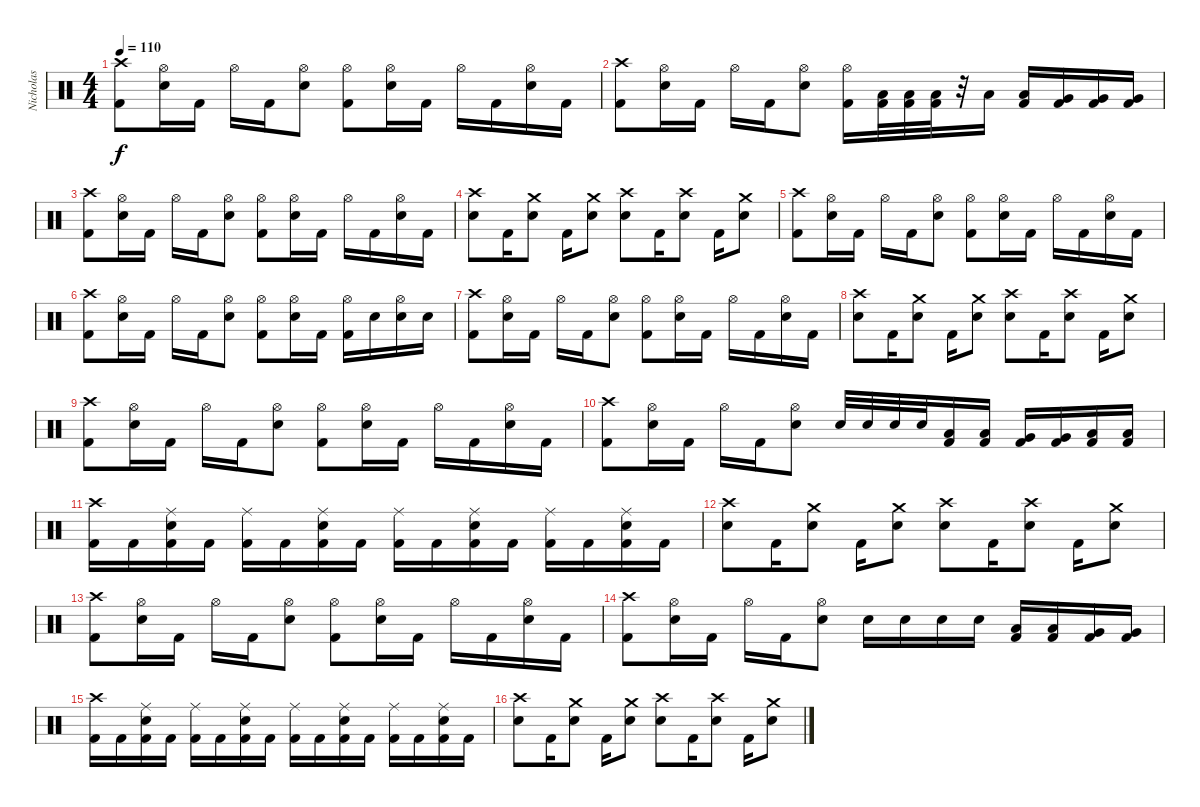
\track ("Nicholas" "Nicholas") {instrument percussion}
\staff {score}
\articulation defaults
\ts (4 4)
\tempo 110
\clef neutral
\ks c
("Crash high (hit)" "Kick (hit) 2").8{dy f} ("Hi-Hat (open)" "Snare (hit) 2").16 "Kick (hit) 2".16 "Hi-Hat (open)".16 "Kick (hit) 2".16 ("Hi-Hat (open)" "Snare (hit) 2").8 ("Hi-Hat (open)" "Kick (hit) 2").8 ("Hi-Hat (open)" "Snare (hit) 2").16 "Kick (hit) 2".16 "Hi-Hat (open)".16 "Kick (hit) 2".16 ("Hi-Hat (open)" "Snare (hit) 2").16 "Kick (hit) 2".16 |
("Crash high (hit)" "Kick (hit) 2").8 ("Hi-Hat (open)" "Snare (hit) 2").16 "Kick (hit) 2".16 "Hi-Hat (open)".16 "Kick (hit) 2".16 ("Hi-Hat (open)" "Snare (hit) 2").8 ("Hi-Hat (open)" "Kick (hit) 2").16 ("Kick (hit) 2" "Low Tom (hit)").32 ("Kick (hit) 2" "Low Tom (hit)").32 ("Kick (hit) 2" "Low Tom (hit)").32 r.32 "Low Tom (hit)".16 ("Kick (hit) 2" "Low Tom (hit)").16 ("Kick (hit) 2" "Very Low Tom (hit)").16 ("Kick (hit) 2" "Very Low Tom (hit)").16 ("Kick (hit) 2" "Very Low Tom (hit)").16 |
("Crash high (hit)" "Kick (hit) 2").8 ("Hi-Hat (open)" "Snare (hit) 2").16 "Kick (hit) 2".16 "Hi-Hat (open)".16 "Kick (hit) 2".16 ("Hi-Hat (open)" "Snare (hit) 2").8 ("Hi-Hat (open)" "Kick (hit) 2").8 ("Hi-Hat (open)" "Snare (hit) 2").16 "Kick (hit) 2".16 "Hi-Hat (open)".16 "Kick (hit) 2".16 ("Hi-Hat (open)" "Snare (hit) 2").16 "Kick (hit) 2".16 |
("Crash high (hit)" "Snare (hit) 2").8 "Kick (hit) 2".16 ("Crash medium (hit)" "Snare (hit) 2").8 "Kick (hit) 2".16 ("Crash medium (hit)" "Snare (hit) 2").8 ("Crash high (hit)" "Snare (hit) 2").8 "Kick (hit) 2".16 ("Crash high (hit)" "Snare (hit) 2").8 "Kick (hit) 2".16 ("Crash medium (hit)" "Snare (hit) 2").8 |
("Crash high (hit)" "Kick (hit) 2").8 ("Hi-Hat (open)" "Snare (hit) 2").16 "Kick (hit) 2".16 "Hi-Hat (open)".16 "Kick (hit) 2".16 ("Hi-Hat (open)" "Snare (hit) 2").8 ("Hi-Hat (open)" "Kick (hit) 2").8 ("Hi-Hat (open)" "Snare (hit) 2").16 "Kick (hit) 2".16 "Hi-Hat (open)".16 "Kick (hit) 2".16 ("Hi-Hat (open)" "Snare (hit) 2").16 "Kick (hit) 2".16 |
("Crash high (hit)" "Kick (hit) 2").8 ("Hi-Hat (open)" "Snare (hit) 2").16 "Kick (hit) 2".16 "Hi-Hat (open)".16 "Kick (hit) 2".16 ("Hi-Hat (open)" "Snare (hit) 2").8 ("Hi-Hat (open)" "Kick (hit) 2").8 ("Hi-Hat (open)" "Snare (hit) 2").16 "Kick (hit) 2".16 ("Hi-Hat (open)" "Kick (hit) 2").16 "Snare (hit) 2".16 ("Hi-Hat (open)" "Snare (hit) 2").16 "Snare (hit) 2".16 |
("Crash high (hit)" "Kick (hit) 2").8 ("Hi-Hat (open)" "Snare (hit) 2").16 "Kick (hit) 2".16 "Hi-Hat (open)".16 "Kick (hit) 2".16 ("Hi-Hat (open)" "Snare (hit) 2").8 ("Hi-Hat (open)" "Kick (hit) 2").8 ("Hi-Hat (open)" "Snare (hit) 2").16 "Kick (hit) 2".16 "Hi-Hat (open)".16 "Kick (hit) 2".16 ("Hi-Hat (open)" "Snare (hit) 2").16 "Kick (hit) 2".16 |
("Crash high (hit)" "Snare (hit) 2").8 "Kick (hit) 2".16 ("Crash medium (hit)" "Snare (hit) 2").8 "Kick (hit) 2".16 ("Crash medium (hit)" "Snare (hit) 2").8 ("Crash high (hit)" "Snare (hit) 2").8 "Kick (hit) 2".16 ("Crash high (hit)" "Snare (hit) 2").8 "Kick (hit) 2".16 ("Crash medium (hit)" "Snare (hit) 2").8 |
("Crash high (hit)" "Kick (hit) 2").8 ("Hi-Hat (open)" "Snare (hit) 2").16 "Kick (hit) 2".16 "Hi-Hat (open)".16 "Kick (hit) 2".16 ("Hi-Hat (open)" "Snare (hit) 2").8 ("Hi-Hat (open)" "Kick (hit) 2").8 ("Hi-Hat (open)" "Snare (hit) 2").16 "Kick (hit) 2".16 "Hi-Hat (open)".16 "Kick (hit) 2".16 ("Hi-Hat (open)" "Snare (hit) 2").16 "Kick (hit) 2".16 |
("Crash high (hit)" "Kick (hit) 2").8 ("Hi-Hat (open)" "Snare (hit) 2").16 "Kick (hit) 2".16 "Hi-Hat (open)".16 "Kick (hit) 2".16 ("Hi-Hat (open)" "Snare (hit) 2").8 "Snare (hit) 2".32 "Snare (hit) 2".32 "Snare (hit) 2".32 "Snare (hit) 2".32 ("Kick (hit) 2" "Low Tom (hit)").16 ("Kick (hit) 2" "Low Tom (hit)").16 ("Kick (hit) 2" "Very Low Tom (hit)").16 ("Kick (hit) 2" "Very Low Tom (hit)").16 ("Kick (hit) 2" "Low Floor Tom (hit)").16 ("Kick (hit) 2" "Low Floor Tom (hit)").16 |
("Crash high (hit)" "Kick (hit) 2").16 "Kick (hit) 2".16 ("Ride (middle)" "Snare (hit) 2" "Kick (hit) 2").16 "Kick (hit) 2".16 ("Ride (middle)" "Kick (hit) 2").16 "Kick (hit) 2".16 ("Ride (middle)" "Snare (hit) 2" "Kick (hit) 2").16 "Kick (hit) 2".16 ("Ride (middle)" "Kick (hit) 2").16 "Kick (hit) 2".16 ("Ride (middle)" "Snare (hit) 2" "Kick (hit) 2").16 "Kick (hit) 2".16 ("Ride (middle)" "Kick (hit) 2").16 "Kick (hit) 2".16 ("Ride (middle)" "Snare (hit) 2" "Kick (hit) 2").16 "Kick (hit) 2".16 |
("Crash high (hit)" "Snare (hit) 2").8 "Kick (hit) 2".16 ("Crash medium (hit)" "Snare (hit) 2").8 "Kick (hit) 2".16 ("Crash medium (hit)" "Snare (hit) 2").8 ("Crash high (hit)" "Snare (hit) 2").8 "Kick (hit) 2".16 ("Crash high (hit)" "Snare (hit) 2").8 "Kick (hit) 2".16 ("Crash medium (hit)" "Snare (hit) 2").8 |
("Crash high (hit)" "Kick (hit) 2").8 ("Hi-Hat (open)" "Snare (hit) 2").16 "Kick (hit) 2".16 "Hi-Hat (open)".16 "Kick (hit) 2".16 ("Hi-Hat (open)" "Snare (hit) 2").8 ("Hi-Hat (open)" "Kick (hit) 2").8 ("Hi-Hat (open)" "Snare (hit) 2").16 "Kick (hit) 2".16 "Hi-Hat (open)".16 "Kick (hit) 2".16 ("Hi-Hat (open)" "Snare (hit) 2").16 "Kick (hit) 2".16 |
("Crash high (hit)" "Kick (hit) 2").8 ("Hi-Hat (open)" "Snare (hit) 2").16 "Kick (hit) 2".16 "Hi-Hat (open)".16 "Kick (hit) 2".16 ("Hi-Hat (open)" "Snare (hit) 2").8 "Snare (hit) 2".16 "Snare (hit) 2".16 "Snare (hit) 2".16 "Snare (hit) 2".16 ("Kick (hit) 2" "Low Tom (hit)").16 ("Kick (hit) 2" "Low Tom (hit)").16 ("Kick (hit) 2" "Very Low Tom (hit)").16 ("Kick (hit) 2" "Very Low Tom (hit)").16 |
("Crash high (hit)" "Kick (hit) 2").16 "Kick (hit) 2".16 ("Ride (middle)" "Snare (hit) 2" "Kick (hit) 2").16 "Kick (hit) 2".16 ("Ride (middle)" "Kick (hit) 2").16 "Kick (hit) 2".16 ("Ride (middle)" "Snare (hit) 2" "Kick (hit) 2").16 "Kick (hit) 2".16 ("Ride (middle)" "Kick (hit) 2").16 "Kick (hit) 2".16 ("Ride (middle)" "Snare (hit) 2" "Kick (hit) 2").16 "Kick (hit) 2".16 ("Ride (middle)" "Kick (hit) 2").16 "Kick (hit) 2".16 ("Ride (middle)" "Snare (hit) 2" "Kick (hit) 2").16 "Kick (hit) 2".16 |
("Crash high (hit)" "Snare (hit) 2").8 "Kick (hit) 2".16 ("Crash medium (hit)" "Snare (hit) 2").8 "Kick (hit) 2".16 ("Crash medium (hit)" "Snare (hit) 2").8 ("Crash high (hit)" "Snare (hit) 2").8 "Kick (hit) 2".16 ("Crash high (hit)" "Snare (hit) 2").8 "Kick (hit) 2".16 ("Crash medium (hit)" "Snare (hit) 2").8
